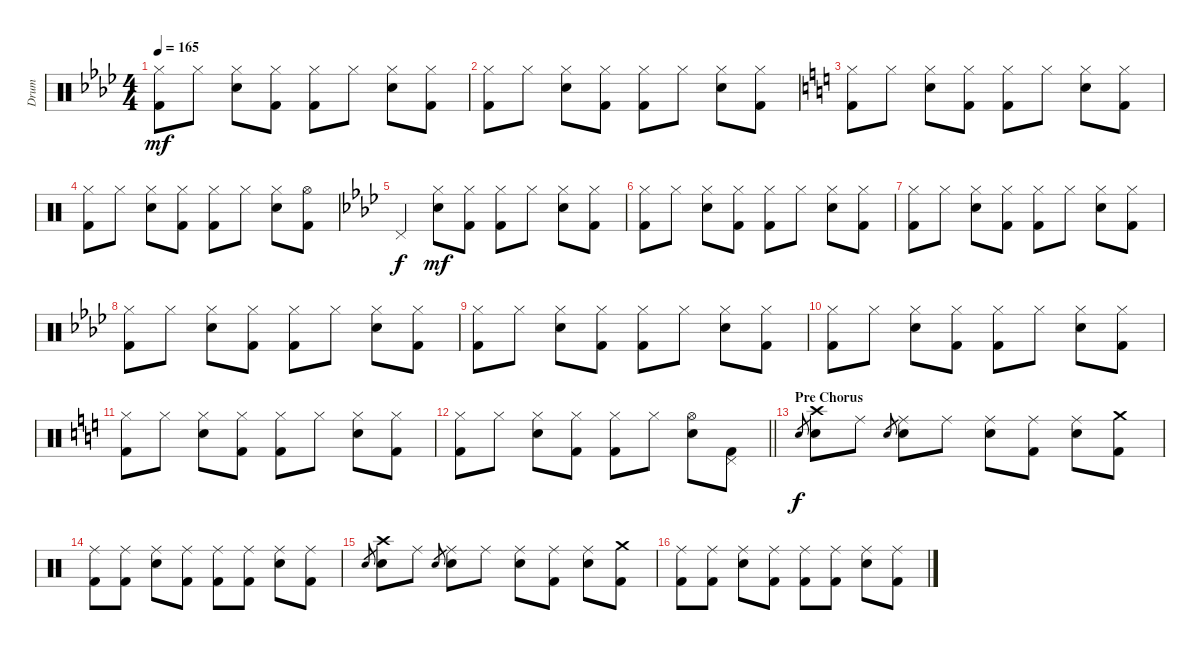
\track ("Drum" "Drum") {instrument percussion}
\staff {score}
\articulation defaults
\ts (4 4)
\tempo 165
\clef neutral
\ks ab
("Hi-Hat (closed)" "Kick (hit) 2").8{dy mf} "Hi-Hat (closed)".8 ("Hi-Hat (closed)" "Electric Snare (hit)").8 ("Hi-Hat (closed)" "Kick (hit) 2").8 ("Hi-Hat (closed)" "Kick (hit) 2").8 "Hi-Hat (closed)".8 ("Hi-Hat (closed)" "Electric Snare (hit)").8 ("Hi-Hat (closed)" "Kick (hit) 2").8 |
("Hi-Hat (closed)" "Kick (hit) 2").8 "Hi-Hat (closed)".8 ("Hi-Hat (closed)" "Electric Snare (hit)").8 ("Hi-Hat (closed)" "Kick (hit) 2").8 ("Hi-Hat (closed)" "Kick (hit) 2").8 "Hi-Hat (closed)".8 ("Hi-Hat (closed)" "Electric Snare (hit)").8 ("Hi-Hat (closed)" "Kick (hit) 2").8 |
\ks c
("Hi-Hat (closed)" "Kick (hit) 2").8 "Hi-Hat (closed)".8 ("Hi-Hat (closed)" "Electric Snare (hit)").8 ("Hi-Hat (closed)" "Kick (hit) 2").8 ("Hi-Hat (closed)" "Kick (hit) 2").8 "Hi-Hat (closed)".8 ("Hi-Hat (closed)" "Electric Snare (hit)").8 ("Hi-Hat (closed)" "Kick (hit) 2").8 |
("Hi-Hat (closed)" "Kick (hit) 2").8 "Hi-Hat (closed)".8 ("Hi-Hat (closed)" "Electric Snare (hit)").8 ("Hi-Hat (closed)" "Kick (hit) 2").8 ("Hi-Hat (closed)" "Kick (hit) 2").8 "Hi-Hat (closed)".8 ("Hi-Hat (closed)" "Electric Snare (hit)").8 ("Hi-Hat (open)" "Kick (hit) 2").8 |
\ks ab "Pedal Hi-Hat (hit)".4{dy f}
("Hi-Hat (closed)" "Electric Snare (hit)").8{dy mf} ("Hi-Hat (closed)" "Kick (hit) 2").8 ("Hi-Hat (closed)" "Kick (hit) 2").8 "Hi-Hat (closed)".8 ("Hi-Hat (closed)" "Electric Snare (hit)").8 ("Hi-Hat (closed)" "Kick (hit) 2").8 |
("Hi-Hat (closed)" "Kick (hit) 2").8 "Hi-Hat (closed)".8 ("Hi-Hat (closed)" "Electric Snare (hit)").8 ("Hi-Hat (closed)" "Kick (hit) 2").8 ("Hi-Hat (closed)" "Kick (hit) 2").8 "Hi-Hat (closed)".8 ("Hi-Hat (closed)" "Electric Snare (hit)").8 ("Hi-Hat (closed)" "Kick (hit) 2").8 |
("Hi-Hat (closed)" "Kick (hit) 2").8 "Hi-Hat (closed)".8 ("Hi-Hat (closed)" "Electric Snare (hit)").8 ("Hi-Hat (closed)" "Kick (hit) 2").8 ("Hi-Hat (closed)" "Kick (hit) 2").8 "Hi-Hat (closed)".8 ("Hi-Hat (closed)" "Electric Snare (hit)").8 ("Hi-Hat (closed)" "Kick (hit) 2").8 |
("Hi-Hat (closed)" "Kick (hit) 2").8 "Hi-Hat (closed)".8 ("Hi-Hat (closed)" "Electric Snare (hit)").8 ("Hi-Hat (closed)" "Kick (hit) 2").8 ("Hi-Hat (closed)" "Kick (hit) 2").8 "Hi-Hat (closed)".8 ("Hi-Hat (closed)" "Electric Snare (hit)").8 ("Hi-Hat (closed)" "Kick (hit) 2").8 |
("Hi-Hat (closed)" "Kick (hit) 2").8 "Hi-Hat (closed)".8 ("Hi-Hat (closed)" "Electric Snare (hit)").8 ("Hi-Hat (closed)" "Kick (hit) 2").8 ("Hi-Hat (closed)" "Kick (hit) 2").8 "Hi-Hat (closed)".8 ("Hi-Hat (closed)" "Electric Snare (hit)").8 ("Hi-Hat (closed)" "Kick (hit) 2").8 |
("Hi-Hat (closed)" "Kick (hit) 2").8 "Hi-Hat (closed)".8 ("Hi-Hat (closed)" "Electric Snare (hit)").8 ("Hi-Hat (closed)" "Kick (hit) 2").8 ("Hi-Hat (closed)" "Kick (hit) 2").8 "Hi-Hat (closed)".8 ("Hi-Hat (closed)" "Electric Snare (hit)").8 ("Hi-Hat (closed)" "Kick (hit) 2").8 |
\ks c
("Hi-Hat (closed)" "Kick (hit) 2").8 "Hi-Hat (closed)".8 ("Hi-Hat (closed)" "Electric Snare (hit)").8 ("Hi-Hat (closed)" "Kick (hit) 2").8 ("Hi-Hat (closed)" "Kick (hit) 2").8 "Hi-Hat (closed)".8 ("Hi-Hat (closed)" "Electric Snare (hit)").8 ("Hi-Hat (closed)" "Kick (hit) 2").8 |
\barLineRight lightlight
("Hi-Hat (closed)" "Kick (hit) 2").8 "Hi-Hat (closed)".8 ("Hi-Hat (closed)" "Electric Snare (hit)").8 ("Hi-Hat (closed)" "Kick (hit) 2").8 ("Hi-Hat (closed)" "Kick (hit) 2").8 "Hi-Hat (closed)".8 ("Hi-Hat (open)" "Electric Snare (hit)").8 ("Pedal Hi-Hat (hit)" "Kick (hit) 2").8 |
\section ("" "Pre Chorus")
"Electric Snare (hit)".8{gr dy f} ("Crash high (hit)" "Electric Snare (hit)").8 "Ride (middle)".8 "Electric Snare (hit)".8{gr} ("Ride (middle)" "Electric Snare (hit)").8 "Ride (middle)".8 ("Ride (middle)" "Electric Snare (hit)").8 ("Ride (middle)" "Kick (hit) 2").8 ("Ride (middle)" "Electric Snare (hit)").8 ("Crash medium (hit)" "Kick (hit) 2").8 |
("Ride (middle)" "Kick (hit) 2").8 ("Ride (middle)" "Kick (hit) 2").8 ("Ride (middle)" "Electric Snare (hit)").8 ("Ride (middle)" "Kick (hit) 2").8 ("Ride (middle)" "Kick (hit) 2").8 ("Ride (middle)" "Kick (hit) 2").8 ("Ride (middle)" "Electric Snare (hit)").8 ("Ride (middle)" "Kick (hit) 2").8 |
"Electric Snare (hit)".8{gr} ("Crash high (hit)" "Electric Snare (hit)").8 "Ride (middle)".8 "Electric Snare (hit)".8{gr} ("Ride (middle)" "Electric Snare (hit)").8 "Ride (middle)".8 ("Ride (middle)" "Electric Snare (hit)").8 ("Ride (middle)" "Kick (hit) 2").8 ("Ride (middle)" "Electric Snare (hit)").8 ("Crash medium (hit)" "Kick (hit) 2").8 |
("Ride (middle)" "Kick (hit) 2").8 ("Ride (middle)" "Kick (hit) 2").8 ("Ride (middle)" "Electric Snare (hit)").8 ("Ride (middle)" "Kick (hit) 2").8 ("Ride (middle)" "Kick (hit) 2").8 ("Ride (middle)" "Kick (hit) 2").8 ("Ride (middle)" "Electric Snare (hit)").8 ("Ride (middle)" "Kick (hit) 2").8
